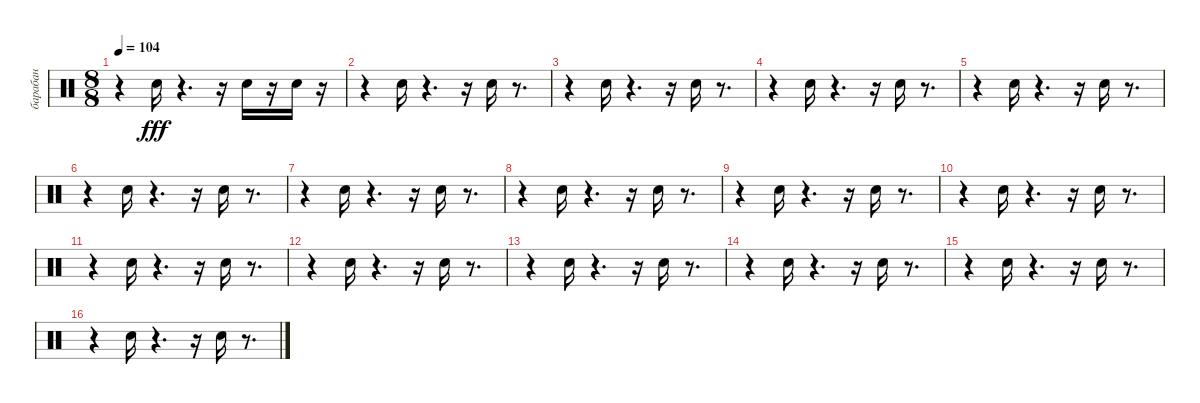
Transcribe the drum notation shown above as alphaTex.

\track ("барабан" "барабан") {instrument percussion}
\staff {score}
\articulation defaults
\ts (8 8)
\tempo 104
\clef neutral
\ks c
r.4{dy fff} "Snare (hit) 2".16 r.4{d} r.16 "Snare (hit) 2".16 r.16 "Snare (hit) 2".16 r.16 |
r.4 "Snare (hit) 2".16 r.4{d} r.16 "Snare (hit) 2".16 r.8{d} |
r.4 "Snare (hit) 2".16 r.4{d} r.16 "Snare (hit) 2".16 r.8{d} |
r.4 "Snare (hit) 2".16 r.4{d} r.16 "Snare (hit) 2".16 r.8{d} |
r.4 "Snare (hit) 2".16 r.4{d} r.16 "Snare (hit) 2".16 r.8{d} |
r.4 "Snare (hit) 2".16 r.4{d} r.16 "Snare (hit) 2".16 r.8{d} |
r.4 "Snare (hit) 2".16 r.4{d} r.16 "Snare (hit) 2".16 r.8{d} |
r.4 "Snare (hit) 2".16 r.4{d} r.16 "Snare (hit) 2".16 r.8{d} |
r.4 "Snare (hit) 2".16 r.4{d} r.16 "Snare (hit) 2".16 r.8{d} |
r.4 "Snare (hit) 2".16 r.4{d} r.16 "Snare (hit) 2".16 r.8{d} |
r.4 "Snare (hit) 2".16 r.4{d} r.16 "Snare (hit) 2".16 r.8{d} |
r.4 "Snare (hit) 2".16 r.4{d} r.16 "Snare (hit) 2".16 r.8{d} |
r.4 "Snare (hit) 2".16 r.4{d} r.16 "Snare (hit) 2".16 r.8{d} |
r.4 "Snare (hit) 2".16 r.4{d} r.16 "Snare (hit) 2".16 r.8{d} |
r.4 "Snare (hit) 2".16 r.4{d} r.16 "Snare (hit) 2".16 r.8{d} |
r.4 "Snare (hit) 2".16 r.4{d} r.16 "Snare (hit) 2".16 r.8{d}
